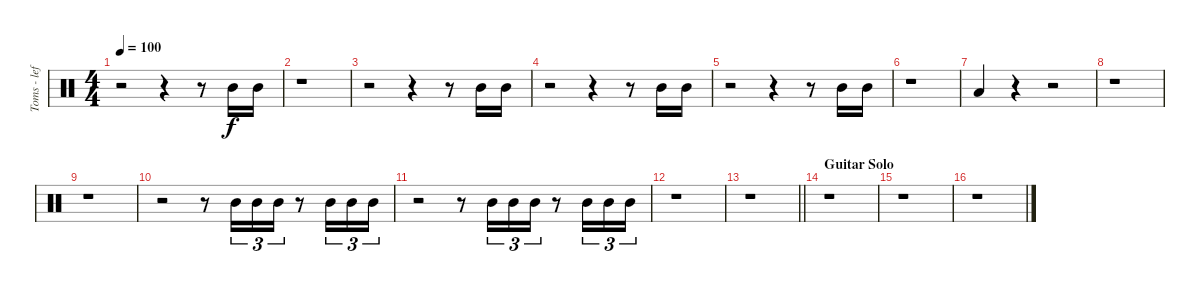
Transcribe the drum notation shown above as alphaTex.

\track ("Toms - left" "Toms - lef") {instrument percussion}
\staff {score}
\articulation defaults
\ts (4 4)
\tempo 100
\clef neutral
\ks c
r.2{dy f} r.4 r.8 "Mid Tom (hit)".16 "Mid Tom (hit)".16 |
r.1 |
r.2 r.4 r.8 "Mid Tom (hit)".16 "Mid Tom (hit)".16 |
r.2 r.4 r.8 "Mid Tom (hit)".16 "Mid Tom (hit)".16 |
r.2 r.4 r.8 "Mid Tom (hit)".16 "Mid Tom (hit)".16 |
r.1 |
"Low Tom (hit)".4 r.4 r.2 |
r.1 |
r.1 |
r.2 r.8 "Mid Tom (hit)".16{tu (3 2)} "Mid Tom (hit)".16{tu (3 2)} "Mid Tom (hit)".16{tu (3 2)} r.8 "Mid Tom (hit)".16{tu (3 2)} "Mid Tom (hit)".16{tu (3 2)} "Mid Tom (hit)".16{tu (3 2)} |
r.2 r.8 "Mid Tom (hit)".16{tu (3 2)} "Mid Tom (hit)".16{tu (3 2)} "Mid Tom (hit)".16{tu (3 2)} r.8 "Mid Tom (hit)".16{tu (3 2)} "Mid Tom (hit)".16{tu (3 2)} "Mid Tom (hit)".16{tu (3 2)} |
r.1 |
\barLineRight lightlight
r.1 |
\section ("" "Guitar Solo")
r.1 |
r.1 |
r.1
